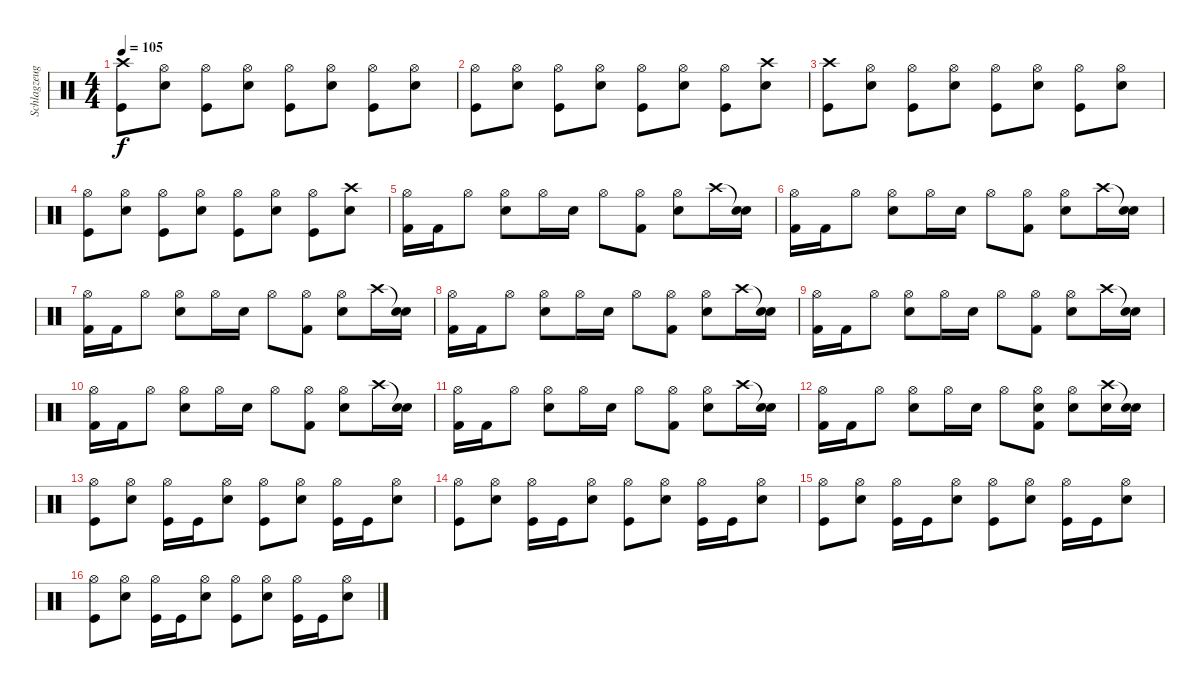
\track ("Schlagzeug" "Schlagzeug") {instrument percussion}
\staff {score}
\articulation defaults
\ts (4 4)
\tempo 105
\clef neutral
\ks c
("Crash high (hit)" "Kick (hit)").8{dy f} ("Hi-Hat (open)" "Snare (hit) 2").8 ("Hi-Hat (open)" "Kick (hit)").8 ("Hi-Hat (open)" "Snare (hit) 2").8 ("Hi-Hat (open)" "Kick (hit)").8 ("Hi-Hat (open)" "Snare (hit) 2").8 ("Hi-Hat (open)" "Kick (hit)").8 ("Hi-Hat (open)" "Snare (hit) 2").8 |
("Hi-Hat (open)" "Kick (hit)").8 ("Hi-Hat (open)" "Snare (hit) 2").8 ("Hi-Hat (open)" "Kick (hit)").8 ("Hi-Hat (open)" "Snare (hit) 2").8 ("Hi-Hat (open)" "Kick (hit)").8 ("Hi-Hat (open)" "Snare (hit) 2").8 ("Hi-Hat (open)" "Kick (hit)").8 ("Crash high (hit)" "Snare (hit) 2").8 |
("Crash high (hit)" "Kick (hit)").8 ("Hi-Hat (open)" "Snare (hit) 2").8 ("Hi-Hat (open)" "Kick (hit)").8 ("Hi-Hat (open)" "Snare (hit) 2").8 ("Hi-Hat (open)" "Kick (hit)").8 ("Hi-Hat (open)" "Snare (hit) 2").8 ("Hi-Hat (open)" "Kick (hit)").8 ("Hi-Hat (open)" "Snare (hit) 2").8 |
("Hi-Hat (open)" "Kick (hit)").8 ("Hi-Hat (open)" "Snare (hit) 2").8 ("Hi-Hat (open)" "Kick (hit)").8 ("Hi-Hat (open)" "Snare (hit) 2").8 ("Hi-Hat (open)" "Kick (hit)").8 ("Hi-Hat (open)" "Snare (hit) 2").8 ("Hi-Hat (open)" "Kick (hit)").8 ("Crash high (hit)" "Snare (hit) 2").8 |
("Hi-Hat (open)" "Kick (hit) 2").16 "Kick (hit) 2".16 "Hi-Hat (open)".8 ("Hi-Hat (open)" "Snare (hit) 2").8 "Hi-Hat (open)".16 "Snare (hit) 2".16 "Hi-Hat (open)".8 ("Hi-Hat (open)" "Kick (hit) 2").8 ("Hi-Hat (open)" "Snare (hit) 2").8 "Crash high (hit)".16 ("Snare (hit)"{t} "Snare (hit) 2").16 |
("Hi-Hat (open)" "Kick (hit) 2").16 "Kick (hit) 2".16 "Hi-Hat (open)".8 ("Hi-Hat (open)" "Snare (hit) 2").8 "Hi-Hat (open)".16 "Snare (hit) 2".16 "Hi-Hat (open)".8 ("Hi-Hat (open)" "Kick (hit) 2").8 ("Hi-Hat (open)" "Snare (hit) 2").8 "Crash high (hit)".16 ("Snare (hit)"{t} "Snare (hit) 2").16 |
("Hi-Hat (open)" "Kick (hit) 2").16 "Kick (hit) 2".16 "Hi-Hat (open)".8 ("Hi-Hat (open)" "Snare (hit) 2").8 "Hi-Hat (open)".16 "Snare (hit) 2".16 "Hi-Hat (open)".8 ("Hi-Hat (open)" "Kick (hit) 2").8 ("Hi-Hat (open)" "Snare (hit) 2").8 "Crash high (hit)".16 ("Snare (hit)"{t} "Snare (hit) 2").16 |
("Hi-Hat (open)" "Kick (hit) 2").16 "Kick (hit) 2".16 "Hi-Hat (open)".8 ("Hi-Hat (open)" "Snare (hit) 2").8 "Hi-Hat (open)".16 "Snare (hit) 2".16 "Hi-Hat (open)".8 ("Hi-Hat (open)" "Kick (hit) 2").8 ("Hi-Hat (open)" "Snare (hit) 2").8 "Crash high (hit)".16 ("Snare (hit)"{t} "Snare (hit) 2").16 |
("Hi-Hat (open)" "Kick (hit) 2").16 "Kick (hit) 2".16 "Hi-Hat (open)".8 ("Hi-Hat (open)" "Snare (hit) 2").8 "Hi-Hat (open)".16 "Snare (hit) 2".16 "Hi-Hat (open)".8 ("Hi-Hat (open)" "Kick (hit) 2").8 ("Hi-Hat (open)" "Snare (hit) 2").8 "Crash high (hit)".16 ("Snare (hit)"{t} "Snare (hit) 2").16 |
("Hi-Hat (open)" "Kick (hit) 2").16 "Kick (hit) 2".16 "Hi-Hat (open)".8 ("Hi-Hat (open)" "Snare (hit) 2").8 "Hi-Hat (open)".16 "Snare (hit) 2".16 "Hi-Hat (open)".8 ("Hi-Hat (open)" "Kick (hit) 2").8 ("Hi-Hat (open)" "Snare (hit) 2").8 "Crash high (hit)".16 ("Snare (hit)"{t} "Snare (hit) 2").16 |
("Hi-Hat (open)" "Kick (hit) 2").16 "Kick (hit) 2".16 "Hi-Hat (open)".8 ("Hi-Hat (open)" "Snare (hit) 2").8 "Hi-Hat (open)".16 "Snare (hit) 2".16 "Hi-Hat (open)".8 ("Hi-Hat (open)" "Kick (hit) 2").8 ("Hi-Hat (open)" "Snare (hit) 2").8 "Crash high (hit)".16 ("Snare (hit)"{t} "Snare (hit) 2").16 |
("Hi-Hat (open)" "Kick (hit) 2").16 "Kick (hit) 2".16 "Hi-Hat (open)".8 ("Hi-Hat (open)" "Snare (hit) 2").8 "Hi-Hat (open)".16 "Snare (hit) 2".16 "Hi-Hat (open)".8 ("Hi-Hat (open)" "Snare (hit) 2" "Kick (hit) 2").8 ("Hi-Hat (open)" "Snare (hit) 2").8 ("Crash high (hit)" "Snare (hit) 2").16 ("Snare (hit)"{t} "Snare (hit) 2").16 |
("Hi-Hat (open)" "Kick (hit)").8 ("Hi-Hat (open)" "Snare (hit) 2").8 ("Hi-Hat (open)" "Kick (hit)").16 "Kick (hit)".16 ("Hi-Hat (open)" "Snare (hit) 2").8 ("Hi-Hat (open)" "Kick (hit)").8 ("Hi-Hat (open)" "Snare (hit) 2").8 ("Hi-Hat (open)" "Kick (hit)").16 "Kick (hit)".16 ("Hi-Hat (open)" "Snare (hit) 2").8 |
("Hi-Hat (open)" "Kick (hit)").8 ("Hi-Hat (open)" "Snare (hit) 2").8 ("Hi-Hat (open)" "Kick (hit)").16 "Kick (hit)".16 ("Hi-Hat (open)" "Snare (hit) 2").8 ("Hi-Hat (open)" "Kick (hit)").8 ("Hi-Hat (open)" "Snare (hit) 2").8 ("Hi-Hat (open)" "Kick (hit)").16 "Kick (hit)".16 ("Hi-Hat (open)" "Snare (hit) 2").8 |
("Hi-Hat (open)" "Kick (hit)").8 ("Hi-Hat (open)" "Snare (hit) 2").8 ("Hi-Hat (open)" "Kick (hit)").16 "Kick (hit)".16 ("Hi-Hat (open)" "Snare (hit) 2").8 ("Hi-Hat (open)" "Kick (hit)").8 ("Hi-Hat (open)" "Snare (hit) 2").8 ("Hi-Hat (open)" "Kick (hit)").16 "Kick (hit)".16 ("Hi-Hat (open)" "Snare (hit) 2").8 |
("Hi-Hat (open)" "Kick (hit)").8 ("Hi-Hat (open)" "Snare (hit) 2").8 ("Hi-Hat (open)" "Kick (hit)").16 "Kick (hit)".16 ("Hi-Hat (open)" "Snare (hit) 2").8 ("Hi-Hat (open)" "Kick (hit)").8 ("Hi-Hat (open)" "Snare (hit) 2").8 ("Hi-Hat (open)" "Kick (hit)").16 "Kick (hit)".16 ("Hi-Hat (open)" "Snare (hit) 2").8
